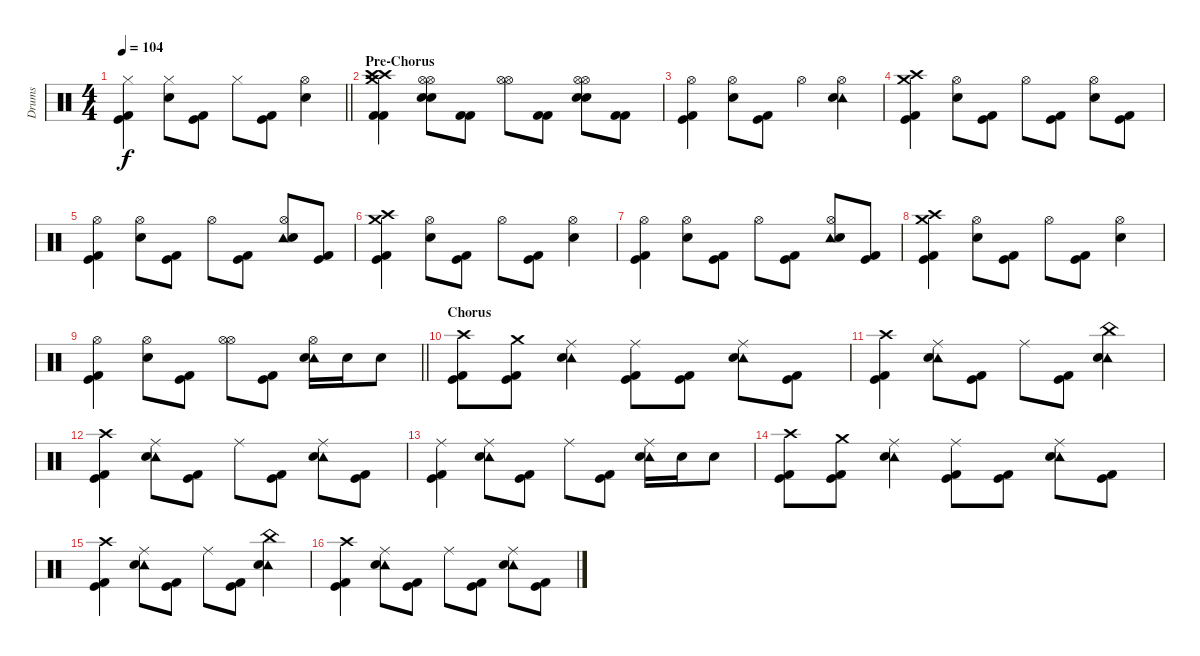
\track ("Drums" "Drums") {instrument percussion}
\staff {score}
\articulation defaults
\ts (4 4)
\tempo 104
\clef neutral
\barLineRight lightlight
\ks c
("Hi-Hat (closed)" "Kick (hit)" "Kick (hit) 2").4{dy f} ("Hi-Hat (closed)" "Electric Snare (hit)").8 ("Kick (hit)" "Kick (hit) 2").8 "Hi-Hat (closed)".8 ("Kick (hit)" "Kick (hit) 2").8 ("Hi-Hat (open)" "Electric Snare (hit)").4 |
\section ("" "Pre-Chorus")
("Crash high (hit)" "Crash medium (hit)" "Kick (hit) 2" "Kick (hit) 2" "Crash high (hit)").4 ("Hi-Hat (open)" "Electric Snare (hit)" "Electric Snare (hit)" "Hi-Hat (open)").8 ("Kick (hit) 2" "Kick (hit) 2").8 ("Hi-Hat (open)" "Hi-Hat (open)").8 ("Kick (hit) 2" "Kick (hit) 2").8 ("Hi-Hat (open)" "Electric Snare (hit)" "Electric Snare (hit)" "Hi-Hat (open)").8 ("Kick (hit) 2" "Kick (hit) 2").8 |
("Hi-Hat (open)" "Kick (hit)" "Kick (hit) 2").4 ("Hi-Hat (open)" "Electric Snare (hit)").8 ("Kick (hit)" "Kick (hit) 2").8 "Hi-Hat (open)".4 ("Hi-Hat (open)" "Tambourine (hit)" "Electric Snare (hit)").4 |
("Crash high (hit)" "Crash medium (hit)" "Kick (hit)" "Kick (hit) 2").4 ("Hi-Hat (open)" "Electric Snare (hit)").8 ("Kick (hit)" "Kick (hit) 2").8 "Hi-Hat (open)".8 ("Kick (hit)" "Kick (hit) 2").8 ("Hi-Hat (open)" "Electric Snare (hit)").8 ("Kick (hit)" "Kick (hit) 2").8 |
("Hi-Hat (open)" "Kick (hit)" "Kick (hit) 2").4 ("Hi-Hat (open)" "Electric Snare (hit)").8 ("Kick (hit)" "Kick (hit) 2").8 "Hi-Hat (open)".8 ("Kick (hit)" "Kick (hit) 2").8 ("Hi-Hat (open)" "Tambourine (hit)" "Electric Snare (hit)").8 ("Kick (hit)" "Kick (hit) 2").8 |
("Crash high (hit)" "Crash medium (hit)" "Kick (hit)" "Kick (hit) 2").4 ("Hi-Hat (open)" "Electric Snare (hit)").8 ("Kick (hit)" "Kick (hit) 2").8 "Hi-Hat (open)".8 ("Kick (hit)" "Kick (hit) 2").8 ("Hi-Hat (open)" "Electric Snare (hit)").4 |
("Hi-Hat (open)" "Kick (hit)" "Kick (hit) 2").4 ("Hi-Hat (open)" "Electric Snare (hit)").8 ("Kick (hit)" "Kick (hit) 2").8 "Hi-Hat (open)".8 ("Kick (hit)" "Kick (hit) 2").8 ("Hi-Hat (open)" "Tambourine (hit)" "Electric Snare (hit)").8 ("Kick (hit)" "Kick (hit) 2").8 |
("Crash high (hit)" "Crash medium (hit)" "Kick (hit)" "Kick (hit) 2").4 ("Hi-Hat (open)" "Electric Snare (hit)").8 ("Kick (hit)" "Kick (hit) 2").8 "Hi-Hat (open)".8 ("Kick (hit)" "Kick (hit) 2").8 ("Hi-Hat (open)" "Electric Snare (hit)").4 |
\barLineRight lightlight
("Hi-Hat (open)" "Kick (hit)" "Kick (hit) 2").4 ("Hi-Hat (open)" "Electric Snare (hit)").8 ("Kick (hit)" "Kick (hit) 2").8 ("Hi-Hat (open)" "Hi-Hat (open)").8 ("Kick (hit)" "Kick (hit) 2").8 ("Hi-Hat (open)" "Tambourine (hit)" "Electric Snare (hit)").16 "Electric Snare (hit)".16 "Electric Snare (hit)".8 |
\section ("" "Chorus")
("Crash high (hit)" "Kick (hit) 2" "Kick (hit)").8 ("Crash medium (hit)" "Kick (hit) 2" "Kick (hit)").8 ("Ride (middle)" "Tambourine (hit)" "Electric Snare (hit)").4 ("Ride (middle)" "Kick (hit)" "Kick (hit) 2").8 ("Kick (hit)" "Kick (hit) 2").8 ("Ride (middle)" "Tambourine (hit)" "Electric Snare (hit)").8 ("Kick (hit)" "Kick (hit) 2").8 |
("Crash high (hit)" "Kick (hit)" "Kick (hit) 2").4 ("Ride (middle)" "Tambourine (hit)" "Electric Snare (hit)").8 ("Kick (hit)" "Kick (hit) 2").8 "Ride (middle)".8 ("Kick (hit)" "Kick (hit) 2").8 ("China (hit)" "Tambourine (hit)" "Electric Snare (hit)").4 |
("Crash high (hit)" "Kick (hit)" "Kick (hit) 2").4 ("Ride (middle)" "Tambourine (hit)" "Electric Snare (hit)").8 ("Kick (hit)" "Kick (hit) 2").8 "Ride (middle)".8 ("Kick (hit)" "Kick (hit) 2").8 ("Ride (middle)" "Tambourine (hit)" "Electric Snare (hit)").8 ("Kick (hit)" "Kick (hit) 2").8 |
("Ride (middle)" "Kick (hit)" "Kick (hit) 2").4 ("Ride (middle)" "Tambourine (hit)" "Electric Snare (hit)").8 ("Kick (hit)" "Kick (hit) 2").8 "Ride (middle)".8 ("Kick (hit)" "Kick (hit) 2").8 ("Ride (middle)" "Tambourine (hit)" "Electric Snare (hit)").16 "Electric Snare (hit)".16 "Electric Snare (hit)".8 |
("Crash high (hit)" "Kick (hit) 2" "Kick (hit)").8 ("Crash medium (hit)" "Kick (hit) 2" "Kick (hit)").8 ("Ride (middle)" "Tambourine (hit)" "Electric Snare (hit)").4 ("Ride (middle)" "Kick (hit)" "Kick (hit) 2").8 ("Kick (hit)" "Kick (hit) 2").8 ("Ride (middle)" "Tambourine (hit)" "Electric Snare (hit)").8 ("Kick (hit)" "Kick (hit) 2").8 |
("Crash high (hit)" "Kick (hit)" "Kick (hit) 2").4 ("Ride (middle)" "Tambourine (hit)" "Electric Snare (hit)").8 ("Kick (hit)" "Kick (hit) 2").8 "Ride (middle)".8 ("Kick (hit)" "Kick (hit) 2").8 ("China (hit)" "Tambourine (hit)" "Electric Snare (hit)").4 |
("Crash high (hit)" "Kick (hit)" "Kick (hit) 2").4 ("Ride (middle)" "Tambourine (hit)" "Electric Snare (hit)").8 ("Kick (hit)" "Kick (hit) 2").8 "Ride (middle)".8 ("Kick (hit)" "Kick (hit) 2").8 ("Ride (middle)" "Tambourine (hit)" "Electric Snare (hit)").8 ("Kick (hit)" "Kick (hit) 2").8
